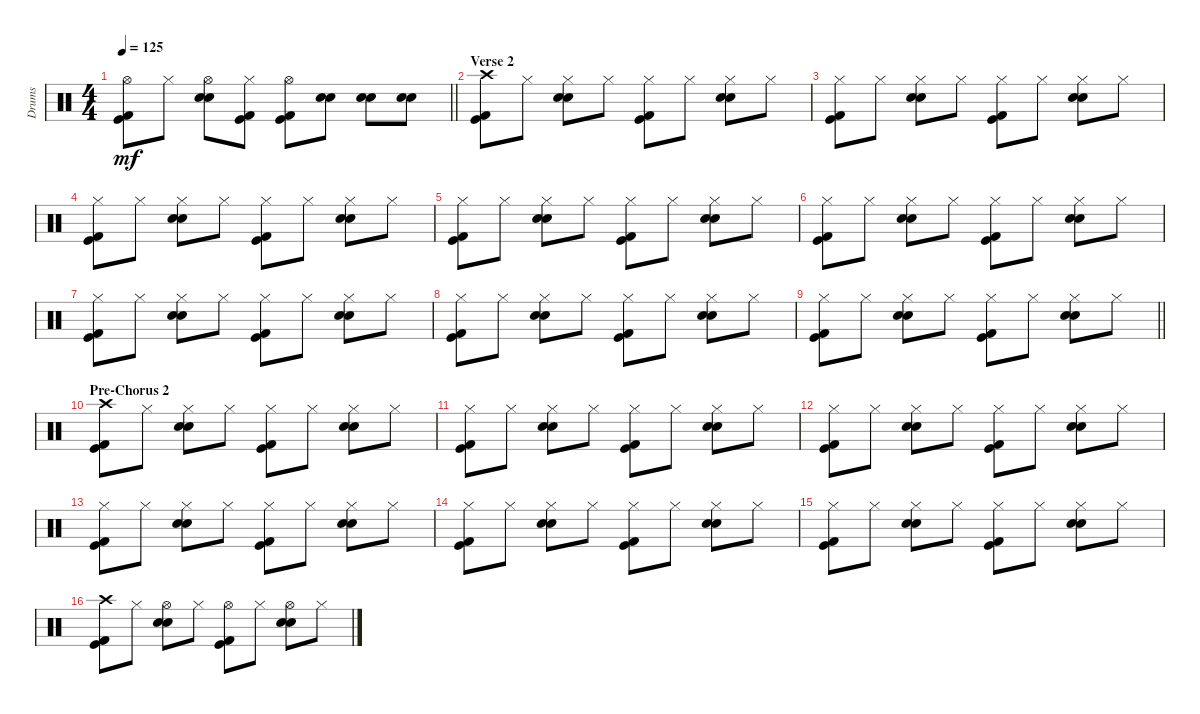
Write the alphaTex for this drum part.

\track ("Drums" "Drums") {instrument percussion}
\staff {score}
\articulation defaults
\ts (4 4)
\tempo 125
\clef neutral
\barLineRight lightlight
\ks c
("Hi-Hat (open)" "Kick (hit) 2" "Kick (hit)").8{dy mf} "Hi-Hat (closed)".8 ("Hi-Hat (open)" "Snare (hit) 2" "Electric Snare (hit)").8 ("Hi-Hat (closed)" "Kick (hit) 2" "Kick (hit)").8 ("Hi-Hat (open)" "Kick (hit) 2" "Kick (hit)").8 ("Snare (hit) 2" "Electric Snare (hit)").8 ("Snare (hit) 2" "Electric Snare (hit)").8 ("Snare (hit) 2" "Electric Snare (hit)").8 |
\section ("" "Verse 2")
("Crash high (hit)" "Kick (hit) 2" "Kick (hit)").8 "Hi-Hat (closed)".8 ("Hi-Hat (closed)" "Snare (hit) 2" "Electric Snare (hit)").8 "Hi-Hat (closed)".8 ("Hi-Hat (closed)" "Kick (hit) 2" "Kick (hit)").8 "Hi-Hat (closed)".8 ("Hi-Hat (closed)" "Snare (hit) 2" "Electric Snare (hit)").8 "Hi-Hat (closed)".8 |
("Hi-Hat (closed)" "Kick (hit) 2" "Kick (hit)").8 "Hi-Hat (closed)".8 ("Hi-Hat (closed)" "Snare (hit) 2" "Electric Snare (hit)").8 "Hi-Hat (closed)".8 ("Hi-Hat (closed)" "Kick (hit) 2" "Kick (hit)").8 "Hi-Hat (closed)".8 ("Hi-Hat (closed)" "Snare (hit) 2" "Electric Snare (hit)").8 "Hi-Hat (closed)".8 |
("Hi-Hat (closed)" "Kick (hit) 2" "Kick (hit)").8 "Hi-Hat (closed)".8 ("Hi-Hat (closed)" "Snare (hit) 2" "Electric Snare (hit)").8 "Hi-Hat (closed)".8 ("Hi-Hat (closed)" "Kick (hit) 2" "Kick (hit)").8 "Hi-Hat (closed)".8 ("Hi-Hat (closed)" "Snare (hit) 2" "Electric Snare (hit)").8 "Hi-Hat (closed)".8 |
("Hi-Hat (closed)" "Kick (hit) 2" "Kick (hit)").8 "Hi-Hat (closed)".8 ("Hi-Hat (closed)" "Snare (hit) 2" "Electric Snare (hit)").8 "Hi-Hat (closed)".8 ("Hi-Hat (closed)" "Kick (hit) 2" "Kick (hit)").8 "Hi-Hat (closed)".8 ("Hi-Hat (closed)" "Snare (hit) 2" "Electric Snare (hit)").8 "Hi-Hat (closed)".8 |
("Hi-Hat (closed)" "Kick (hit) 2" "Kick (hit)").8 "Hi-Hat (closed)".8 ("Hi-Hat (closed)" "Snare (hit) 2" "Electric Snare (hit)").8 "Hi-Hat (closed)".8 ("Hi-Hat (closed)" "Kick (hit) 2" "Kick (hit)").8 "Hi-Hat (closed)".8 ("Hi-Hat (closed)" "Snare (hit) 2" "Electric Snare (hit)").8 "Hi-Hat (closed)".8 |
("Hi-Hat (closed)" "Kick (hit) 2" "Kick (hit)").8 "Hi-Hat (closed)".8 ("Hi-Hat (closed)" "Snare (hit) 2" "Electric Snare (hit)").8 "Hi-Hat (closed)".8 ("Hi-Hat (closed)" "Kick (hit) 2" "Kick (hit)").8 "Hi-Hat (closed)".8 ("Hi-Hat (closed)" "Snare (hit) 2" "Electric Snare (hit)").8 "Hi-Hat (closed)".8 |
("Hi-Hat (closed)" "Kick (hit) 2" "Kick (hit)").8 "Hi-Hat (closed)".8 ("Hi-Hat (closed)" "Snare (hit) 2" "Electric Snare (hit)").8 "Hi-Hat (closed)".8 ("Hi-Hat (closed)" "Kick (hit) 2" "Kick (hit)").8 "Hi-Hat (closed)".8 ("Hi-Hat (closed)" "Snare (hit) 2" "Electric Snare (hit)").8 "Hi-Hat (closed)".8 |
\barLineRight lightlight
("Hi-Hat (closed)" "Kick (hit) 2" "Kick (hit)").8 "Hi-Hat (closed)".8 ("Hi-Hat (closed)" "Snare (hit) 2" "Electric Snare (hit)").8 "Hi-Hat (closed)".8 ("Hi-Hat (closed)" "Kick (hit) 2" "Kick (hit)").8 "Hi-Hat (closed)".8 ("Hi-Hat (closed)" "Snare (hit) 2" "Electric Snare (hit)").8 "Hi-Hat (closed)".8 |
\section ("" "Pre-Chorus 2")
("Crash high (hit)" "Kick (hit) 2" "Kick (hit)").8 "Hi-Hat (closed)".8 ("Hi-Hat (closed)" "Snare (hit) 2" "Electric Snare (hit)").8 "Hi-Hat (closed)".8 ("Hi-Hat (closed)" "Kick (hit) 2" "Kick (hit)").8 "Hi-Hat (closed)".8 ("Hi-Hat (closed)" "Snare (hit) 2" "Electric Snare (hit)").8 "Hi-Hat (closed)".8 |
("Hi-Hat (closed)" "Kick (hit) 2" "Kick (hit)").8 "Hi-Hat (closed)".8 ("Hi-Hat (closed)" "Snare (hit) 2" "Electric Snare (hit)").8 "Hi-Hat (closed)".8 ("Hi-Hat (closed)" "Kick (hit) 2" "Kick (hit)").8 "Hi-Hat (closed)".8 ("Hi-Hat (closed)" "Snare (hit) 2" "Electric Snare (hit)").8 "Hi-Hat (closed)".8 |
("Hi-Hat (closed)" "Kick (hit) 2" "Kick (hit)").8 "Hi-Hat (closed)".8 ("Hi-Hat (closed)" "Snare (hit) 2" "Electric Snare (hit)").8 "Hi-Hat (closed)".8 ("Hi-Hat (closed)" "Kick (hit) 2" "Kick (hit)").8 "Hi-Hat (closed)".8 ("Hi-Hat (closed)" "Snare (hit) 2" "Electric Snare (hit)").8 "Hi-Hat (closed)".8 |
("Hi-Hat (closed)" "Kick (hit) 2" "Kick (hit)").8 "Hi-Hat (closed)".8 ("Hi-Hat (closed)" "Snare (hit) 2" "Electric Snare (hit)").8 "Hi-Hat (closed)".8 ("Hi-Hat (closed)" "Kick (hit) 2" "Kick (hit)").8 "Hi-Hat (closed)".8 ("Hi-Hat (closed)" "Snare (hit) 2" "Electric Snare (hit)").8 "Hi-Hat (closed)".8 |
("Hi-Hat (closed)" "Kick (hit) 2" "Kick (hit)").8 "Hi-Hat (closed)".8 ("Hi-Hat (closed)" "Snare (hit) 2" "Electric Snare (hit)").8 "Hi-Hat (closed)".8 ("Hi-Hat (closed)" "Kick (hit) 2" "Kick (hit)").8 "Hi-Hat (closed)".8 ("Hi-Hat (closed)" "Snare (hit) 2" "Electric Snare (hit)").8 "Hi-Hat (closed)".8 |
("Hi-Hat (closed)" "Kick (hit) 2" "Kick (hit)").8 "Hi-Hat (closed)".8 ("Hi-Hat (closed)" "Snare (hit) 2" "Electric Snare (hit)").8 "Hi-Hat (closed)".8 ("Hi-Hat (closed)" "Kick (hit) 2" "Kick (hit)").8 "Hi-Hat (closed)".8 ("Hi-Hat (closed)" "Snare (hit) 2" "Electric Snare (hit)").8 "Hi-Hat (closed)".8 |
("Crash high (hit)" "Kick (hit) 2" "Kick (hit)").8 "Hi-Hat (closed)".8 ("Hi-Hat (open)" "Snare (hit) 2" "Electric Snare (hit)").8 "Hi-Hat (closed)".8 ("Hi-Hat (open)" "Kick (hit) 2" "Kick (hit)").8 "Hi-Hat (closed)".8 ("Hi-Hat (open)" "Snare (hit) 2" "Electric Snare (hit)").8 "Hi-Hat (closed)".8
